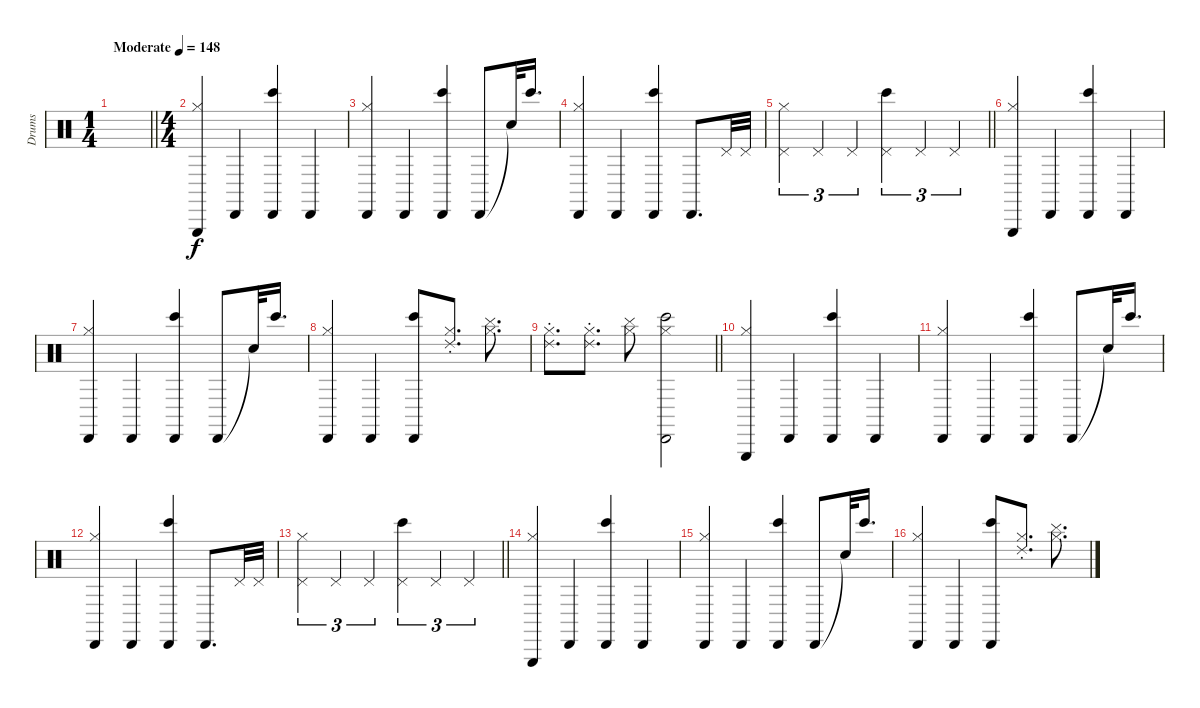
\track ("Drums" "Drums") {instrument percussion}
\staff
\articulation defaults
\ts (1 4)
\tempo (148 "Moderate")
\clef neutral
\barLineRight lightlight
\ks c
|
\ts (4 4)
("Triangle (hit)" "Hi-Hat (closed)").4{volume 7} "Cabasa (hit)".4 ("Cabasa (hit)" "Bongo High (hit)").4 "Cabasa (hit)".4 |
("Cabasa (hit)" "Hi-Hat (closed)").4 "Cabasa (hit)".4 ("Cabasa (hit)" "Bongo High (hit)").4 "Cabasa (hit)".8 "Snare (hit)"{t}.32 "Bongo High (hit)".16{d} |
("Cabasa (hit)" "Hi-Hat (closed)").4 "Cabasa (hit)".4 ("Cabasa (hit)" "Bongo High (hit)").4 "Cabasa (hit)".8{d} "Pedal Hi-Hat (hit)".32 "Pedal Hi-Hat (hit)".32 |
\barLineRight lightlight
("Pedal Hi-Hat (hit)" "Hi-Hat (closed)").4{tu (3 2)} "Pedal Hi-Hat (hit)".4{tu (3 2)} "Pedal Hi-Hat (hit)".4{tu (3 2)} ("Pedal Hi-Hat (hit)" "Bongo High (hit)").4{tu (3 2)} "Pedal Hi-Hat (hit)".4{tu (3 2)} "Pedal Hi-Hat (hit)".4{tu (3 2)} |
("Triangle (hit)" "Hi-Hat (closed)").4 "Cabasa (hit)".4 ("Cabasa (hit)" "Bongo High (hit)").4 "Cabasa (hit)".4 |
("Cabasa (hit)" "Hi-Hat (closed)").4 "Cabasa (hit)".4 ("Cabasa (hit)" "Bongo High (hit)").4 "Cabasa (hit)".8 "Snare (hit)"{t}.32 "Bongo High (hit)".16{d} |
("Cabasa (hit)" "Hi-Hat (closed)").4 "Cabasa (hit)".4 ("Cabasa (hit)" "Bongo High (hit)").8 ("Ride (choke) 2" "Hi-Hat (closed)").8{d} ("Cymbal (hit)" "Hi-Hat (closed)").8{d} |
\barLineRight lightlight
("Ride (choke) 2" "Hi-Hat (closed)").8{d} ("Ride (choke) 2" "Hi-Hat (closed)").8{d} ("Cymbal (hit)" "Hi-Hat (closed)").8 ("Cabasa (hit)" "Bongo High (hit)" "Hi-Hat (closed)").2 |
("Triangle (hit)" "Hi-Hat (closed)").4 "Cabasa (hit)".4 ("Cabasa (hit)" "Bongo High (hit)").4 "Cabasa (hit)".4 |
("Cabasa (hit)" "Hi-Hat (closed)").4 "Cabasa (hit)".4 ("Cabasa (hit)" "Bongo High (hit)").4 "Cabasa (hit)".8 "Snare (hit)"{t}.32 "Bongo High (hit)".16{d} |
("Cabasa (hit)" "Hi-Hat (closed)").4 "Cabasa (hit)".4 ("Cabasa (hit)" "Bongo High (hit)").4 "Cabasa (hit)".8{d} "Pedal Hi-Hat (hit)".32 "Pedal Hi-Hat (hit)".32 |
\barLineRight lightlight
("Pedal Hi-Hat (hit)" "Hi-Hat (closed)").4{tu (3 2)} "Pedal Hi-Hat (hit)".4{tu (3 2)} "Pedal Hi-Hat (hit)".4{tu (3 2)} ("Pedal Hi-Hat (hit)" "Bongo High (hit)").4{tu (3 2)} "Pedal Hi-Hat (hit)".4{tu (3 2)} "Pedal Hi-Hat (hit)".4{tu (3 2)} |
("Triangle (hit)" "Hi-Hat (closed)").4 "Cabasa (hit)".4 ("Cabasa (hit)" "Bongo High (hit)").4 "Cabasa (hit)".4 |
("Cabasa (hit)" "Hi-Hat (closed)").4 "Cabasa (hit)".4 ("Cabasa (hit)" "Bongo High (hit)").4 "Cabasa (hit)".8 "Snare (hit)"{t}.32 "Bongo High (hit)".16{d} |
("Cabasa (hit)" "Hi-Hat (closed)").4 "Cabasa (hit)".4 ("Cabasa (hit)" "Bongo High (hit)").8 ("Ride (choke) 2" "Hi-Hat (closed)").8{d} ("Cymbal (hit)" "Hi-Hat (closed)").8{d}
